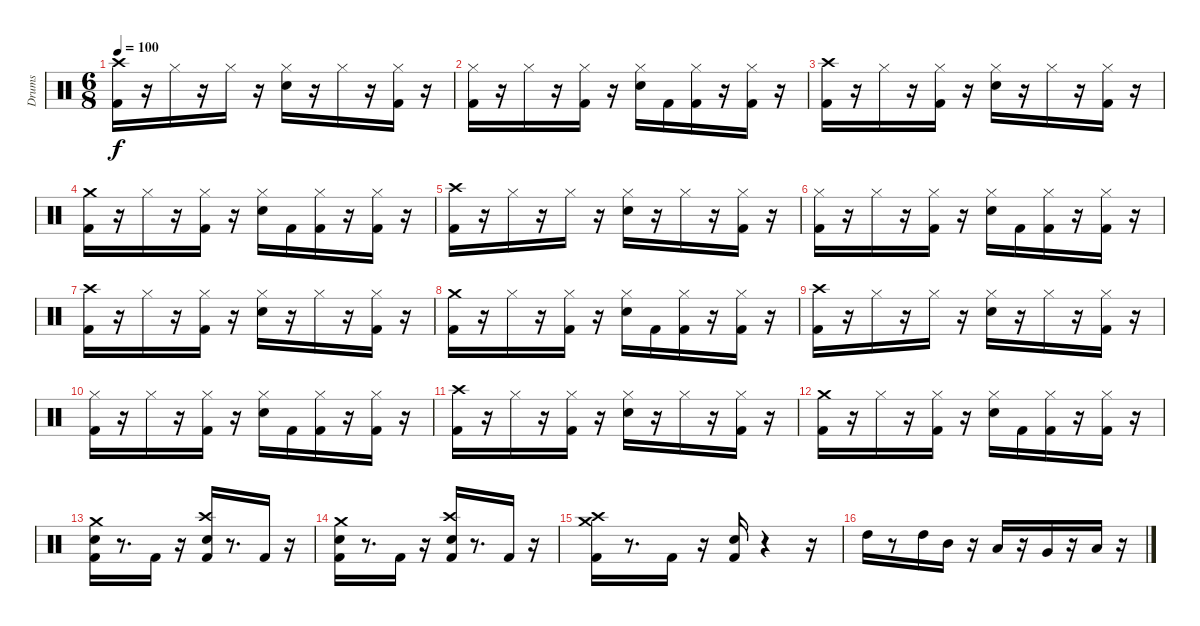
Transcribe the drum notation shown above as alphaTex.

\track ("Drums" "Drums") {instrument percussion}
\staff {score}
\articulation defaults
\ts (6 8)
\tempo 100
\clef neutral
\ks c
("Kick (hit) 2" "Crash high (hit)").16{dy f} r.16 "Hi-Hat (closed)".16 r.16 "Hi-Hat (closed)".16 r.16 ("Snare (hit) 2" "Hi-Hat (closed)").16 r.16 "Hi-Hat (closed)".16 r.16 ("Kick (hit) 2" "Hi-Hat (closed)").16 r.16 |
("Kick (hit) 2" "Hi-Hat (closed)").16 r.16 "Hi-Hat (closed)".16 r.16 ("Kick (hit) 2" "Hi-Hat (closed)").16 r.16 ("Snare (hit) 2" "Hi-Hat (closed)").16 "Kick (hit) 2".16 ("Kick (hit) 2" "Hi-Hat (closed)").16 r.16 ("Kick (hit) 2" "Hi-Hat (closed)").16 r.16 |
("Kick (hit) 2" "Crash high (hit)").16 r.16 "Hi-Hat (closed)".16 r.16 ("Kick (hit) 2" "Hi-Hat (closed)").16 r.16 ("Snare (hit) 2" "Hi-Hat (closed)").16 r.16 "Hi-Hat (closed)".16 r.16 ("Kick (hit) 2" "Hi-Hat (closed)").16 r.16 |
("Kick (hit) 2" "Crash medium (hit)").16 r.16 "Hi-Hat (closed)".16 r.16 ("Kick (hit) 2" "Hi-Hat (closed)").16 r.16 ("Snare (hit) 2" "Hi-Hat (closed)").16 "Kick (hit) 2".16 ("Kick (hit) 2" "Hi-Hat (closed)").16 r.16 ("Kick (hit) 2" "Hi-Hat (closed)").16 r.16 |
("Kick (hit) 2" "Crash high (hit)").16 r.16 "Hi-Hat (closed)".16 r.16 "Hi-Hat (closed)".16 r.16 ("Snare (hit) 2" "Hi-Hat (closed)").16 r.16 "Hi-Hat (closed)".16 r.16 ("Kick (hit) 2" "Hi-Hat (closed)").16 r.16 |
("Kick (hit) 2" "Hi-Hat (closed)").16 r.16 "Hi-Hat (closed)".16 r.16 ("Kick (hit) 2" "Hi-Hat (closed)").16 r.16 ("Snare (hit) 2" "Hi-Hat (closed)").16 "Kick (hit) 2".16 ("Kick (hit) 2" "Hi-Hat (closed)").16 r.16 ("Kick (hit) 2" "Hi-Hat (closed)").16 r.16 |
("Kick (hit) 2" "Crash high (hit)").16 r.16 "Hi-Hat (closed)".16 r.16 ("Kick (hit) 2" "Hi-Hat (closed)").16 r.16 ("Snare (hit) 2" "Hi-Hat (closed)").16 r.16 "Hi-Hat (closed)".16 r.16 ("Kick (hit) 2" "Hi-Hat (closed)").16 r.16 |
("Kick (hit) 2" "Crash medium (hit)").16 r.16 "Hi-Hat (closed)".16 r.16 ("Kick (hit) 2" "Hi-Hat (closed)").16 r.16 ("Snare (hit) 2" "Hi-Hat (closed)").16 "Kick (hit) 2".16 ("Kick (hit) 2" "Hi-Hat (closed)").16 r.16 ("Kick (hit) 2" "Hi-Hat (closed)").16 r.16 |
("Kick (hit) 2" "Crash high (hit)").16 r.16 "Hi-Hat (closed)".16 r.16 "Hi-Hat (closed)".16 r.16 ("Snare (hit) 2" "Hi-Hat (closed)").16 r.16 "Hi-Hat (closed)".16 r.16 ("Kick (hit) 2" "Hi-Hat (closed)").16 r.16 |
("Kick (hit) 2" "Hi-Hat (closed)").16 r.16 "Hi-Hat (closed)".16 r.16 ("Kick (hit) 2" "Hi-Hat (closed)").16 r.16 ("Snare (hit) 2" "Hi-Hat (closed)").16 "Kick (hit) 2".16 ("Kick (hit) 2" "Hi-Hat (closed)").16 r.16 ("Kick (hit) 2" "Hi-Hat (closed)").16 r.16 |
("Kick (hit) 2" "Crash high (hit)").16 r.16 "Hi-Hat (closed)".16 r.16 ("Kick (hit) 2" "Hi-Hat (closed)").16 r.16 ("Snare (hit) 2" "Hi-Hat (closed)").16 r.16 "Hi-Hat (closed)".16 r.16 ("Kick (hit) 2" "Hi-Hat (closed)").16 r.16 |
("Kick (hit) 2" "Crash medium (hit)").16 r.16 "Hi-Hat (closed)".16 r.16 ("Kick (hit) 2" "Hi-Hat (closed)").16 r.16 ("Snare (hit) 2" "Hi-Hat (closed)").16 "Kick (hit) 2".16 ("Kick (hit) 2" "Hi-Hat (closed)").16 r.16 ("Kick (hit) 2" "Hi-Hat (closed)").16 r.16 |
("Kick (hit) 2" "Snare (hit) 2" "Crash medium (hit)").16 r.8{d} "Kick (hit) 2".16 r.16 ("Kick (hit) 2" "Snare (hit) 2" "Crash high (hit)").16 r.8{d} "Kick (hit) 2".16 r.16 |
("Kick (hit) 2" "Snare (hit) 2" "Crash medium (hit)").16 r.8{d} "Kick (hit) 2".16 r.16 ("Kick (hit) 2" "Snare (hit) 2" "Crash high (hit)").16 r.8{d} "Kick (hit) 2".16 r.16 |
("Kick (hit) 2" "Crash high (hit)" "Crash medium (hit)").16 r.8{d} "Kick (hit) 2".16 r.16 ("Kick (hit) 2" "Snare (hit) 2").16 r.4 r.16 |
"High Tom (hit)".16 r.8 "High Tom (hit)".16 "Mid Tom (hit)".16 r.16 "Low Tom (hit)".16 r.16 "Very Low Tom (hit)".16 r.16 "Low Floor Tom (hit)".16 r.16
